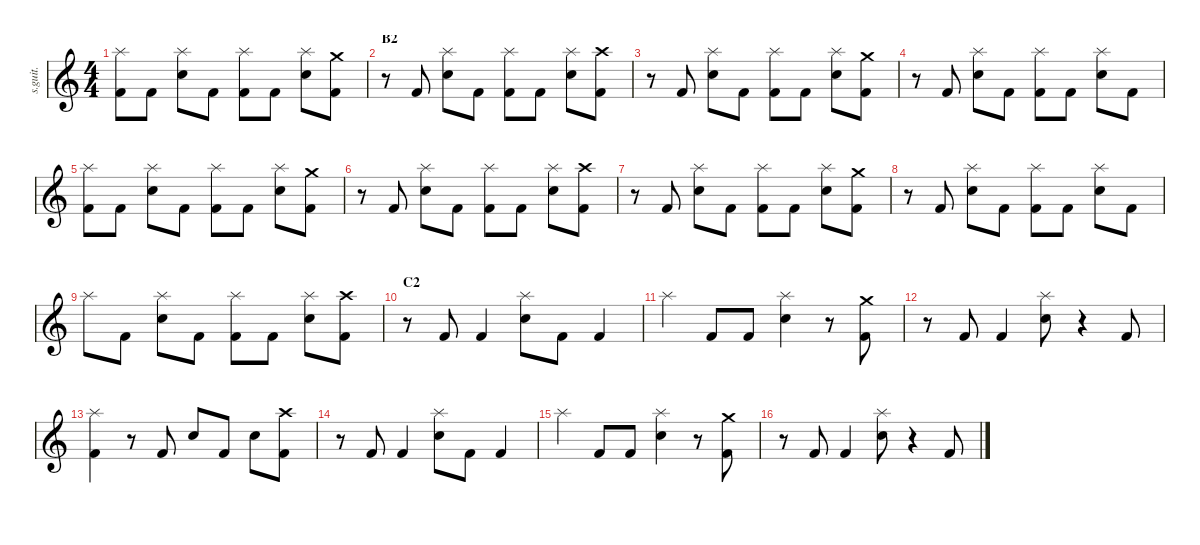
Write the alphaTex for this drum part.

\defaultSystemsLayout 4
\hideDynamics
\bracketExtendMode nobrackets
\track ("Batterie" "s.guit.") {instrument percussion}
\staff {score}
\articulation defaults
\ts (4 4)
\tempo (170 hide)
\clef g2
\ks c
("Splash (hit)" "Kick (hit) 2").8{lyrics (0 "") lyrics (1 "") lyrics (2 "") lyrics (3 "") lyrics (4 "") dy f} "Kick (hit) 2".8{lyrics (0 "") lyrics (1 "") lyrics (2 "") lyrics (3 "") lyrics (4 "") dy fff} ("Splash (hit)" "Electric Snare (hit)").8{lyrics (0 "") lyrics (1 "") lyrics (2 "") lyrics (3 "") lyrics (4 "") dy f} "Kick (hit) 2".8{lyrics (0 "") lyrics (1 "") lyrics (2 "") lyrics (3 "") lyrics (4 "") dy fff} ("Splash (hit)" "Kick (hit) 2").8{lyrics (0 "") lyrics (1 "") lyrics (2 "") lyrics (3 "") lyrics (4 "") dy f} "Kick (hit) 2".8{lyrics (0 "") lyrics (1 "") lyrics (2 "") lyrics (3 "") lyrics (4 "") dy fff} ("Splash (hit)" "Electric Snare (hit)").8{lyrics (0 "") lyrics (1 "") lyrics (2 "") lyrics (3 "") lyrics (4 "") dy f} ("Crash medium (hit)" "Kick (hit) 2").8{lyrics (0 "") lyrics (1 "") lyrics (2 "") lyrics (3 "") lyrics (4 "")} |
\section ("" "B2")
r.8 "Kick (hit) 2".8{lyrics (0 "") lyrics (1 "") lyrics (2 "") lyrics (3 "") lyrics (4 "") dy fff} ("Splash (hit)" "Electric Snare (hit)").8{lyrics (0 "") lyrics (1 "") lyrics (2 "") lyrics (3 "") lyrics (4 "") dy f} "Kick (hit) 2".8{lyrics (0 "") lyrics (1 "") lyrics (2 "") lyrics (3 "") lyrics (4 "") dy fff} ("Splash (hit)" "Kick (hit) 2").8{lyrics (0 "") lyrics (1 "") lyrics (2 "") lyrics (3 "") lyrics (4 "") dy f} "Kick (hit) 2".8{lyrics (0 "") lyrics (1 "") lyrics (2 "") lyrics (3 "") lyrics (4 "") dy fff} ("Splash (hit)" "Electric Snare (hit)").8{lyrics (0 "") lyrics (1 "") lyrics (2 "") lyrics (3 "") lyrics (4 "") dy f} ("Crash high (hit)" "Kick (hit) 2").8{lyrics (0 "") lyrics (1 "") lyrics (2 "") lyrics (3 "") lyrics (4 "")} |
r.8 "Kick (hit) 2".8{lyrics (0 "") lyrics (1 "") lyrics (2 "") lyrics (3 "") lyrics (4 "") dy fff} ("Splash (hit)" "Electric Snare (hit)").8{lyrics (0 "") lyrics (1 "") lyrics (2 "") lyrics (3 "") lyrics (4 "") dy f} "Kick (hit) 2".8{lyrics (0 "") lyrics (1 "") lyrics (2 "") lyrics (3 "") lyrics (4 "") dy fff} ("Splash (hit)" "Kick (hit) 2").8{lyrics (0 "") lyrics (1 "") lyrics (2 "") lyrics (3 "") lyrics (4 "") dy f} "Kick (hit) 2".8{lyrics (0 "") lyrics (1 "") lyrics (2 "") lyrics (3 "") lyrics (4 "") dy fff} ("Splash (hit)" "Electric Snare (hit)").8{lyrics (0 "") lyrics (1 "") lyrics (2 "") lyrics (3 "") lyrics (4 "") dy f} ("Crash medium (hit)" "Kick (hit) 2").8{lyrics (0 "") lyrics (1 "") lyrics (2 "") lyrics (3 "") lyrics (4 "")} |
r.8 "Kick (hit) 2".8{lyrics (0 "") lyrics (1 "") lyrics (2 "") lyrics (3 "") lyrics (4 "") dy fff} ("Splash (hit)" "Electric Snare (hit)").8{lyrics (0 "") lyrics (1 "") lyrics (2 "") lyrics (3 "") lyrics (4 "") dy f} "Kick (hit) 2".8{lyrics (0 "") lyrics (1 "") lyrics (2 "") lyrics (3 "") lyrics (4 "") dy fff} ("Splash (hit)" "Kick (hit) 2").8{lyrics (0 "") lyrics (1 "") lyrics (2 "") lyrics (3 "") lyrics (4 "") dy f} "Kick (hit) 2".8{lyrics (0 "") lyrics (1 "") lyrics (2 "") lyrics (3 "") lyrics (4 "") dy fff} ("Splash (hit)" "Electric Snare (hit)").8{lyrics (0 "") lyrics (1 "") lyrics (2 "") lyrics (3 "") lyrics (4 "") dy f} "Kick (hit) 2".8{lyrics (0 "") lyrics (1 "") lyrics (2 "") lyrics (3 "") lyrics (4 "") dy fff} |
("Splash (hit)" "Kick (hit) 2").8{lyrics (0 "") lyrics (1 "") lyrics (2 "") lyrics (3 "") lyrics (4 "") dy f} "Kick (hit) 2".8{lyrics (0 "") lyrics (1 "") lyrics (2 "") lyrics (3 "") lyrics (4 "") dy fff} ("Splash (hit)" "Electric Snare (hit)").8{lyrics (0 "") lyrics (1 "") lyrics (2 "") lyrics (3 "") lyrics (4 "") dy f} "Kick (hit) 2".8{lyrics (0 "") lyrics (1 "") lyrics (2 "") lyrics (3 "") lyrics (4 "") dy fff} ("Splash (hit)" "Kick (hit) 2").8{lyrics (0 "") lyrics (1 "") lyrics (2 "") lyrics (3 "") lyrics (4 "") dy f} "Kick (hit) 2".8{lyrics (0 "") lyrics (1 "") lyrics (2 "") lyrics (3 "") lyrics (4 "") dy fff} ("Splash (hit)" "Electric Snare (hit)").8{lyrics (0 "") lyrics (1 "") lyrics (2 "") lyrics (3 "") lyrics (4 "") dy f} ("Crash medium (hit)" "Kick (hit) 2").8{lyrics (0 "") lyrics (1 "") lyrics (2 "") lyrics (3 "") lyrics (4 "")} |
r.8 "Kick (hit) 2".8{lyrics (0 "") lyrics (1 "") lyrics (2 "") lyrics (3 "") lyrics (4 "") dy fff} ("Splash (hit)" "Electric Snare (hit)").8{lyrics (0 "") lyrics (1 "") lyrics (2 "") lyrics (3 "") lyrics (4 "") dy f} "Kick (hit) 2".8{lyrics (0 "") lyrics (1 "") lyrics (2 "") lyrics (3 "") lyrics (4 "") dy fff} ("Splash (hit)" "Kick (hit) 2").8{lyrics (0 "") lyrics (1 "") lyrics (2 "") lyrics (3 "") lyrics (4 "") dy f} "Kick (hit) 2".8{lyrics (0 "") lyrics (1 "") lyrics (2 "") lyrics (3 "") lyrics (4 "") dy fff} ("Splash (hit)" "Electric Snare (hit)").8{lyrics (0 "") lyrics (1 "") lyrics (2 "") lyrics (3 "") lyrics (4 "") dy f} ("Crash high (hit)" "Kick (hit) 2").8{lyrics (0 "") lyrics (1 "") lyrics (2 "") lyrics (3 "") lyrics (4 "")} |
r.8 "Kick (hit) 2".8{lyrics (0 "") lyrics (1 "") lyrics (2 "") lyrics (3 "") lyrics (4 "") dy fff} ("Splash (hit)" "Electric Snare (hit)").8{lyrics (0 "") lyrics (1 "") lyrics (2 "") lyrics (3 "") lyrics (4 "") dy f} "Kick (hit) 2".8{lyrics (0 "") lyrics (1 "") lyrics (2 "") lyrics (3 "") lyrics (4 "") dy fff} ("Splash (hit)" "Kick (hit) 2").8{lyrics (0 "") lyrics (1 "") lyrics (2 "") lyrics (3 "") lyrics (4 "") dy f} "Kick (hit) 2".8{lyrics (0 "") lyrics (1 "") lyrics (2 "") lyrics (3 "") lyrics (4 "") dy fff} ("Splash (hit)" "Electric Snare (hit)").8{lyrics (0 "") lyrics (1 "") lyrics (2 "") lyrics (3 "") lyrics (4 "") dy f} ("Crash medium (hit)" "Kick (hit) 2").8{lyrics (0 "") lyrics (1 "") lyrics (2 "") lyrics (3 "") lyrics (4 "")} |
r.8 "Kick (hit) 2".8{lyrics (0 "") lyrics (1 "") lyrics (2 "") lyrics (3 "") lyrics (4 "") dy fff} ("Splash (hit)" "Electric Snare (hit)").8{lyrics (0 "") lyrics (1 "") lyrics (2 "") lyrics (3 "") lyrics (4 "") dy f} "Kick (hit) 2".8{lyrics (0 "") lyrics (1 "") lyrics (2 "") lyrics (3 "") lyrics (4 "") dy fff} ("Splash (hit)" "Kick (hit) 2").8{lyrics (0 "") lyrics (1 "") lyrics (2 "") lyrics (3 "") lyrics (4 "") dy f} "Kick (hit) 2".8{lyrics (0 "") lyrics (1 "") lyrics (2 "") lyrics (3 "") lyrics (4 "") dy fff} ("Splash (hit)" "Electric Snare (hit)").8{lyrics (0 "") lyrics (1 "") lyrics (2 "") lyrics (3 "") lyrics (4 "") dy f} "Kick (hit) 2".8{lyrics (0 "") lyrics (1 "") lyrics (2 "") lyrics (3 "") lyrics (4 "") dy fff} |
"Splash (hit)".8{lyrics (0 "") lyrics (1 "") lyrics (2 "") lyrics (3 "") lyrics (4 "") dy f} "Kick (hit) 2".8{lyrics (0 "") lyrics (1 "") lyrics (2 "") lyrics (3 "") lyrics (4 "") dy fff} ("Splash (hit)" "Electric Snare (hit)").8{lyrics (0 "") lyrics (1 "") lyrics (2 "") lyrics (3 "") lyrics (4 "") dy f} "Kick (hit) 2".8{lyrics (0 "") lyrics (1 "") lyrics (2 "") lyrics (3 "") lyrics (4 "") dy fff} ("Splash (hit)" "Kick (hit) 2").8{lyrics (0 "") lyrics (1 "") lyrics (2 "") lyrics (3 "") lyrics (4 "") dy f} "Kick (hit) 2".8{lyrics (0 "") lyrics (1 "") lyrics (2 "") lyrics (3 "") lyrics (4 "") dy fff} ("Splash (hit)" "Electric Snare (hit)").8{lyrics (0 "") lyrics (1 "") lyrics (2 "") lyrics (3 "") lyrics (4 "") dy f} ("Crash high (hit)" "Kick (hit) 2").8{lyrics (0 "") lyrics (1 "") lyrics (2 "") lyrics (3 "") lyrics (4 "")} |
\section ("" "C2")
r.8 "Kick (hit) 2".8{lyrics (0 "") lyrics (1 "") lyrics (2 "") lyrics (3 "") lyrics (4 "") dy fff} "Kick (hit) 2".4{lyrics (0 "") lyrics (1 "") lyrics (2 "") lyrics (3 "") lyrics (4 "")} ("Splash (hit)" "Electric Snare (hit)").8{lyrics (0 "") lyrics (1 "") lyrics (2 "") lyrics (3 "") lyrics (4 "")} "Kick (hit) 2".8{lyrics (0 "") lyrics (1 "") lyrics (2 "") lyrics (3 "") lyrics (4 "")} "Kick (hit) 2".4{lyrics (0 "") lyrics (1 "") lyrics (2 "") lyrics (3 "") lyrics (4 "")} |
"Splash (hit)".4{lyrics (0 "") lyrics (1 "") lyrics (2 "") lyrics (3 "") lyrics (4 "")} "Kick (hit) 2".8{lyrics (0 "") lyrics (1 "") lyrics (2 "") lyrics (3 "") lyrics (4 "")} "Kick (hit) 2".8{lyrics (0 "") lyrics (1 "") lyrics (2 "") lyrics (3 "") lyrics (4 "")} ("Splash (hit)" "Electric Snare (hit)").4{lyrics (0 "") lyrics (1 "") lyrics (2 "") lyrics (3 "") lyrics (4 "")} r.8 ("Crash medium (hit)" "Kick (hit) 2").8{lyrics (0 "") lyrics (1 "") lyrics (2 "") lyrics (3 "") lyrics (4 "")} |
r.8 "Kick (hit) 2".8{lyrics (0 "") lyrics (1 "") lyrics (2 "") lyrics (3 "") lyrics (4 "")} "Kick (hit) 2".4{lyrics (0 "") lyrics (1 "") lyrics (2 "") lyrics (3 "") lyrics (4 "")} ("Splash (hit)" "Electric Snare (hit)").8{lyrics (0 "") lyrics (1 "") lyrics (2 "") lyrics (3 "") lyrics (4 "")} r.4 "Kick (hit) 2".8{lyrics (0 "") lyrics (1 "") lyrics (2 "") lyrics (3 "") lyrics (4 "")} |
("Splash (hit)" "Kick (hit) 2").4{lyrics (0 "") lyrics (1 "") lyrics (2 "") lyrics (3 "") lyrics (4 "")} r.8 "Kick (hit) 2".8{lyrics (0 "") lyrics (1 "") lyrics (2 "") lyrics (3 "") lyrics (4 "")} "Electric Snare (hit)".8{lyrics (0 "") lyrics (1 "") lyrics (2 "") lyrics (3 "") lyrics (4 "")} "Kick (hit) 2".8{lyrics (0 "") lyrics (1 "") lyrics (2 "") lyrics (3 "") lyrics (4 "")} "Electric Snare (hit)".8{lyrics (0 "") lyrics (1 "") lyrics (2 "") lyrics (3 "") lyrics (4 "")} ("Crash high (hit)" "Kick (hit) 2").8{lyrics (0 "") lyrics (1 "") lyrics (2 "") lyrics (3 "") lyrics (4 "")} |
r.8 "Kick (hit) 2".8{lyrics (0 "") lyrics (1 "") lyrics (2 "") lyrics (3 "") lyrics (4 "")} "Kick (hit) 2".4{lyrics (0 "") lyrics (1 "") lyrics (2 "") lyrics (3 "") lyrics (4 "")} ("Splash (hit)" "Electric Snare (hit)").8{lyrics (0 "") lyrics (1 "") lyrics (2 "") lyrics (3 "") lyrics (4 "")} "Kick (hit) 2".8{lyrics (0 "") lyrics (1 "") lyrics (2 "") lyrics (3 "") lyrics (4 "")} "Kick (hit) 2".4{lyrics (0 "") lyrics (1 "") lyrics (2 "") lyrics (3 "") lyrics (4 "")} |
"Splash (hit)".4{lyrics (0 "") lyrics (1 "") lyrics (2 "") lyrics (3 "") lyrics (4 "")} "Kick (hit) 2".8{lyrics (0 "") lyrics (1 "") lyrics (2 "") lyrics (3 "") lyrics (4 "")} "Kick (hit) 2".8{lyrics (0 "") lyrics (1 "") lyrics (2 "") lyrics (3 "") lyrics (4 "")} ("Splash (hit)" "Electric Snare (hit)").4{lyrics (0 "") lyrics (1 "") lyrics (2 "") lyrics (3 "") lyrics (4 "")} r.8 ("Crash medium (hit)" "Kick (hit) 2").8{lyrics (0 "") lyrics (1 "") lyrics (2 "") lyrics (3 "") lyrics (4 "")} |
r.8 "Kick (hit) 2".8{lyrics (0 "") lyrics (1 "") lyrics (2 "") lyrics (3 "") lyrics (4 "")} "Kick (hit) 2".4{lyrics (0 "") lyrics (1 "") lyrics (2 "") lyrics (3 "") lyrics (4 "")} ("Splash (hit)" "Electric Snare (hit)").8{lyrics (0 "") lyrics (1 "") lyrics (2 "") lyrics (3 "") lyrics (4 "")} r.4 "Kick (hit) 2".8{lyrics (0 "") lyrics (1 "") lyrics (2 "") lyrics (3 "") lyrics (4 "")}
